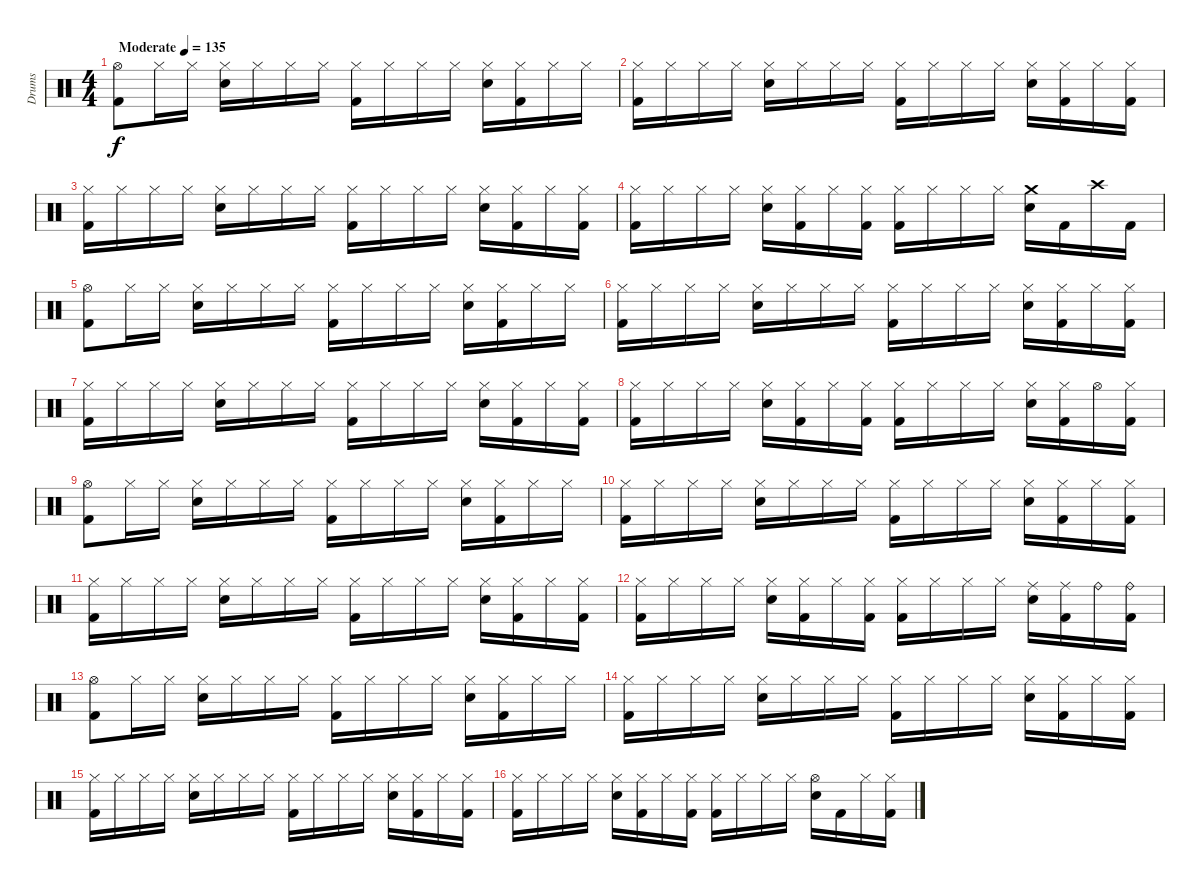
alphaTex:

\track ("Drums" "Drums") {instrument percussion}
\staff {score}
\articulation defaults
\ts (4 4)
\tempo (135 "Moderate")
\clef neutral
\ks c
("Hi-Hat (open)" "Kick (hit) 2").8{dy f} "Hi-Hat (closed)".16 "Hi-Hat (closed)".16 ("Hi-Hat (closed)" "Electric Snare (hit)").16 "Hi-Hat (closed)".16 "Hi-Hat (closed)".16 "Hi-Hat (closed)".16 ("Hi-Hat (closed)" "Kick (hit) 2").16 "Hi-Hat (closed)".16 "Hi-Hat (closed)".16 "Hi-Hat (closed)".16 ("Hi-Hat (closed)" "Electric Snare (hit)").16 ("Hi-Hat (closed)" "Kick (hit) 2").16 "Hi-Hat (closed)".16 "Hi-Hat (closed)".16 |
("Hi-Hat (closed)" "Kick (hit) 2").16 "Hi-Hat (closed)".16 "Hi-Hat (closed)".16 "Hi-Hat (closed)".16 ("Hi-Hat (closed)" "Electric Snare (hit)").16 "Hi-Hat (closed)".16 "Hi-Hat (closed)".16 "Hi-Hat (closed)".16 ("Hi-Hat (closed)" "Kick (hit) 2").16 "Hi-Hat (closed)".16 "Hi-Hat (closed)".16 "Hi-Hat (closed)".16 ("Hi-Hat (closed)" "Electric Snare (hit)").16 ("Hi-Hat (closed)" "Kick (hit) 2").16 "Hi-Hat (closed)".16 ("Hi-Hat (closed)" "Kick (hit) 2").16 |
("Hi-Hat (closed)" "Kick (hit) 2").16 "Hi-Hat (closed)".16 "Hi-Hat (closed)".16 "Hi-Hat (closed)".16 ("Hi-Hat (closed)" "Electric Snare (hit)").16 "Hi-Hat (closed)".16 "Hi-Hat (closed)".16 "Hi-Hat (closed)".16 ("Hi-Hat (closed)" "Kick (hit) 2").16 "Hi-Hat (closed)".16 "Hi-Hat (closed)".16 "Hi-Hat (closed)".16 ("Hi-Hat (closed)" "Electric Snare (hit)").16 ("Hi-Hat (closed)" "Kick (hit) 2").16 "Hi-Hat (closed)".16 ("Hi-Hat (closed)" "Kick (hit) 2").16 |
("Hi-Hat (closed)" "Kick (hit) 2").16 "Hi-Hat (closed)".16 "Hi-Hat (closed)".16 "Hi-Hat (closed)".16 ("Hi-Hat (closed)" "Electric Snare (hit)").16 ("Hi-Hat (closed)" "Kick (hit) 2").16 "Hi-Hat (closed)".16 ("Hi-Hat (closed)" "Kick (hit) 2").16 ("Hi-Hat (closed)" "Kick (hit) 2").16 "Hi-Hat (closed)".16 "Hi-Hat (closed)".16 "Hi-Hat (closed)".16 ("Crash medium (hit)" "Electric Snare (hit)").16 "Kick (hit) 2".16 "Crash high (hit)".16 "Kick (hit) 2".16 |
("Hi-Hat (open)" "Kick (hit) 2").8 "Hi-Hat (closed)".16 "Hi-Hat (closed)".16 ("Hi-Hat (closed)" "Electric Snare (hit)").16 "Hi-Hat (closed)".16 "Hi-Hat (closed)".16 "Hi-Hat (closed)".16 ("Hi-Hat (closed)" "Kick (hit) 2").16 "Hi-Hat (closed)".16 "Hi-Hat (closed)".16 "Hi-Hat (closed)".16 ("Hi-Hat (closed)" "Electric Snare (hit)").16 ("Hi-Hat (closed)" "Kick (hit) 2").16 "Hi-Hat (closed)".16 "Hi-Hat (closed)".16 |
("Hi-Hat (closed)" "Kick (hit) 2").16 "Hi-Hat (closed)".16 "Hi-Hat (closed)".16 "Hi-Hat (closed)".16 ("Hi-Hat (closed)" "Electric Snare (hit)").16 "Hi-Hat (closed)".16 "Hi-Hat (closed)".16 "Hi-Hat (closed)".16 ("Hi-Hat (closed)" "Kick (hit) 2").16 "Hi-Hat (closed)".16 "Hi-Hat (closed)".16 "Hi-Hat (closed)".16 ("Hi-Hat (closed)" "Electric Snare (hit)").16 ("Hi-Hat (closed)" "Kick (hit) 2").16 "Hi-Hat (closed)".16 ("Hi-Hat (closed)" "Kick (hit) 2").16 |
("Hi-Hat (closed)" "Kick (hit) 2").16 "Hi-Hat (closed)".16 "Hi-Hat (closed)".16 "Hi-Hat (closed)".16 ("Hi-Hat (closed)" "Electric Snare (hit)").16 "Hi-Hat (closed)".16 "Hi-Hat (closed)".16 "Hi-Hat (closed)".16 ("Hi-Hat (closed)" "Kick (hit) 2").16 "Hi-Hat (closed)".16 "Hi-Hat (closed)".16 "Hi-Hat (closed)".16 ("Hi-Hat (closed)" "Electric Snare (hit)").16 ("Hi-Hat (closed)" "Kick (hit) 2").16 "Hi-Hat (closed)".16 ("Hi-Hat (closed)" "Kick (hit) 2").16 |
("Hi-Hat (closed)" "Kick (hit) 2").16 "Hi-Hat (closed)".16 "Hi-Hat (closed)".16 "Hi-Hat (closed)".16 ("Hi-Hat (closed)" "Electric Snare (hit)").16 ("Hi-Hat (closed)" "Kick (hit) 2").16 "Hi-Hat (closed)".16 ("Hi-Hat (closed)" "Kick (hit) 2").16 ("Hi-Hat (closed)" "Kick (hit) 2").16 "Hi-Hat (closed)".16 "Hi-Hat (closed)".16 "Hi-Hat (closed)".16 ("Hi-Hat (closed)" "Electric Snare (hit)").16 ("Hi-Hat (closed)" "Kick (hit) 2").16 "Hi-Hat (open)".16 ("Hi-Hat (closed)" "Kick (hit) 2").16 |
("Hi-Hat (open)" "Kick (hit) 2").8 "Hi-Hat (closed)".16 "Hi-Hat (closed)".16 ("Hi-Hat (closed)" "Electric Snare (hit)").16 "Hi-Hat (closed)".16 "Hi-Hat (closed)".16 "Hi-Hat (closed)".16 ("Hi-Hat (closed)" "Kick (hit) 2").16 "Hi-Hat (closed)".16 "Hi-Hat (closed)".16 "Hi-Hat (closed)".16 ("Hi-Hat (closed)" "Electric Snare (hit)").16 ("Hi-Hat (closed)" "Kick (hit) 2").16 "Hi-Hat (closed)".16 "Hi-Hat (closed)".16 |
("Hi-Hat (closed)" "Kick (hit) 2").16 "Hi-Hat (closed)".16 "Hi-Hat (closed)".16 "Hi-Hat (closed)".16 ("Hi-Hat (closed)" "Electric Snare (hit)").16 "Hi-Hat (closed)".16 "Hi-Hat (closed)".16 "Hi-Hat (closed)".16 ("Hi-Hat (closed)" "Kick (hit) 2").16 "Hi-Hat (closed)".16 "Hi-Hat (closed)".16 "Hi-Hat (closed)".16 ("Hi-Hat (closed)" "Electric Snare (hit)").16 ("Hi-Hat (closed)" "Kick (hit) 2").16 "Hi-Hat (closed)".16 ("Hi-Hat (closed)" "Kick (hit) 2").16 |
("Hi-Hat (closed)" "Kick (hit) 2").16 "Hi-Hat (closed)".16 "Hi-Hat (closed)".16 "Hi-Hat (closed)".16 ("Hi-Hat (closed)" "Electric Snare (hit)").16 "Hi-Hat (closed)".16 "Hi-Hat (closed)".16 "Hi-Hat (closed)".16 ("Hi-Hat (closed)" "Kick (hit) 2").16 "Hi-Hat (closed)".16 "Hi-Hat (closed)".16 "Hi-Hat (closed)".16 ("Hi-Hat (closed)" "Electric Snare (hit)").16 ("Hi-Hat (closed)" "Kick (hit) 2").16 "Hi-Hat (closed)".16 ("Hi-Hat (closed)" "Kick (hit) 2").16 |
("Hi-Hat (closed)" "Kick (hit) 2").16 "Hi-Hat (closed)".16 "Hi-Hat (closed)".16 "Hi-Hat (closed)".16 ("Hi-Hat (closed)" "Electric Snare (hit)").16 ("Hi-Hat (closed)" "Kick (hit) 2").16 "Hi-Hat (closed)".16 ("Hi-Hat (closed)" "Kick (hit) 2").16 ("Hi-Hat (closed)" "Kick (hit) 2").16 "Hi-Hat (closed)".16 "Hi-Hat (closed)".16 "Hi-Hat (closed)".16 ("Ride (middle)" "Electric Snare (hit)").16 ("Ride (middle)" "Kick (hit) 2").16 "Ride (bell)".16 ("Ride (bell)" "Kick (hit) 2").16 |
("Hi-Hat (open)" "Kick (hit) 2").8 "Hi-Hat (closed)".16 "Hi-Hat (closed)".16 ("Hi-Hat (closed)" "Electric Snare (hit)").16 "Hi-Hat (closed)".16 "Hi-Hat (closed)".16 "Hi-Hat (closed)".16 ("Hi-Hat (closed)" "Kick (hit) 2").16 "Hi-Hat (closed)".16 "Hi-Hat (closed)".16 "Hi-Hat (closed)".16 ("Hi-Hat (closed)" "Electric Snare (hit)").16 ("Hi-Hat (closed)" "Kick (hit) 2").16 "Hi-Hat (closed)".16 "Hi-Hat (closed)".16 |
("Hi-Hat (closed)" "Kick (hit) 2").16 "Hi-Hat (closed)".16 "Hi-Hat (closed)".16 "Hi-Hat (closed)".16 ("Hi-Hat (closed)" "Electric Snare (hit)").16 "Hi-Hat (closed)".16 "Hi-Hat (closed)".16 "Hi-Hat (closed)".16 ("Hi-Hat (closed)" "Kick (hit) 2").16 "Hi-Hat (closed)".16 "Hi-Hat (closed)".16 "Hi-Hat (closed)".16 ("Hi-Hat (closed)" "Electric Snare (hit)").16 ("Hi-Hat (closed)" "Kick (hit) 2").16 "Hi-Hat (closed)".16 ("Hi-Hat (closed)" "Kick (hit) 2").16 |
("Hi-Hat (closed)" "Kick (hit) 2").16 "Hi-Hat (closed)".16 "Hi-Hat (closed)".16 "Hi-Hat (closed)".16 ("Hi-Hat (closed)" "Electric Snare (hit)").16 "Hi-Hat (closed)".16 "Hi-Hat (closed)".16 "Hi-Hat (closed)".16 ("Hi-Hat (closed)" "Kick (hit) 2").16 "Hi-Hat (closed)".16 "Hi-Hat (closed)".16 "Hi-Hat (closed)".16 ("Hi-Hat (closed)" "Electric Snare (hit)").16 ("Hi-Hat (closed)" "Kick (hit) 2").16 "Hi-Hat (closed)".16 ("Hi-Hat (closed)" "Kick (hit) 2").16 |
("Hi-Hat (closed)" "Kick (hit) 2").16 "Hi-Hat (closed)".16 "Hi-Hat (closed)".16 "Hi-Hat (closed)".16 ("Hi-Hat (closed)" "Electric Snare (hit)").16 ("Hi-Hat (closed)" "Kick (hit) 2").16 "Hi-Hat (closed)".16 ("Hi-Hat (closed)" "Kick (hit) 2").16 ("Hi-Hat (closed)" "Kick (hit) 2").16 "Hi-Hat (closed)".16 "Hi-Hat (closed)".16 "Hi-Hat (closed)".16 ("Hi-Hat (open)" "Electric Snare (hit)").16 "Kick (hit) 2".16 "Hi-Hat (closed)".16 ("Hi-Hat (closed)" "Kick (hit) 2").16
